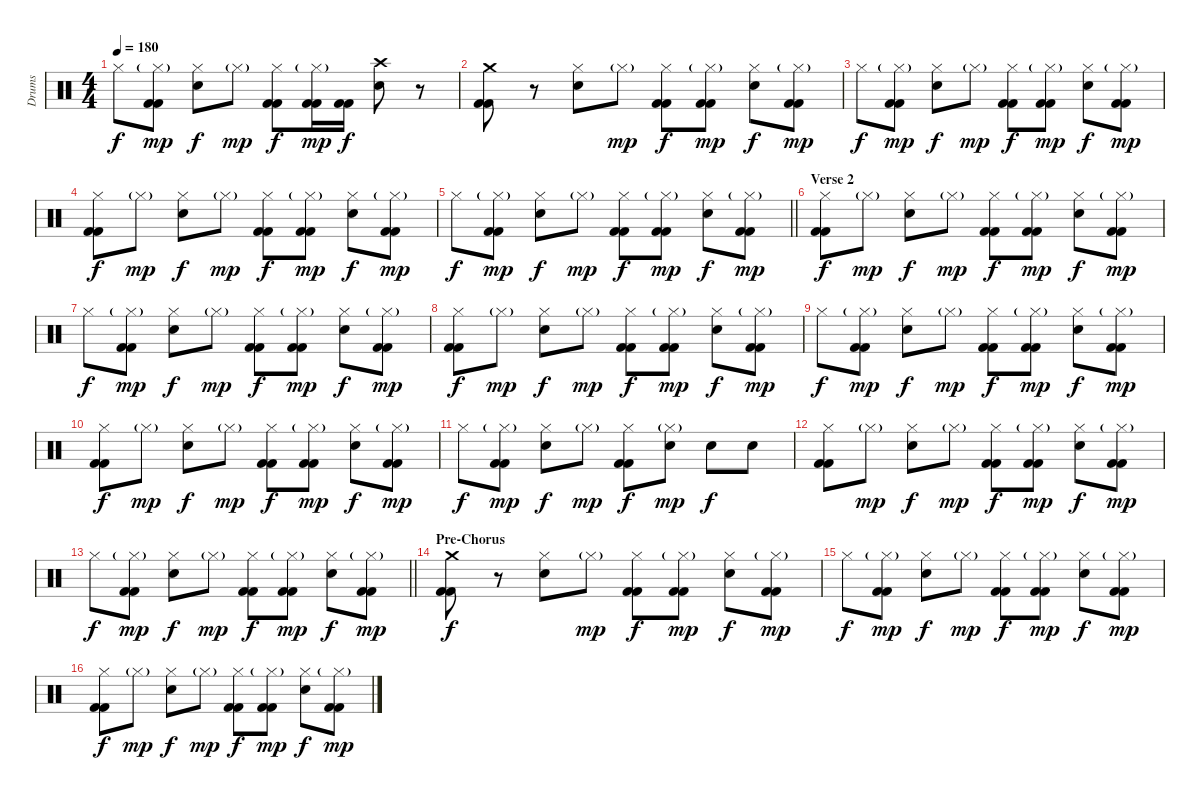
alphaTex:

\track ("Drums" "Drums") {instrument percussion}
\staff {score}
\articulation defaults
\ts (4 4)
\tempo 180
\clef neutral
\ks c "Hi-Hat (closed)".8{dy f}
("Hi-Hat (closed)"{g} "Kick (hit) 2" "Kick (hit) 2").8{dy mp} ("Hi-Hat (closed)" "Snare (hit) 2").8{dy f} "Hi-Hat (closed)"{g}.8{dy mp} ("Hi-Hat (closed)" "Kick (hit) 2" "Kick (hit) 2").8{dy f} ("Hi-Hat (closed)"{g} "Kick (hit) 2" "Kick (hit) 2").16{dy mp} ("Kick (hit) 2" "Kick (hit) 2").16{dy f} ("Crash high (hit)" "Snare (hit) 2").8 r.8 |
("Crash medium (hit)" "Kick (hit) 2" "Kick (hit) 2").8 r.8 ("Hi-Hat (closed)" "Snare (hit) 2").8 "Hi-Hat (closed)"{g}.8{dy mp} ("Hi-Hat (closed)" "Kick (hit) 2" "Kick (hit) 2").8{dy f} ("Hi-Hat (closed)"{g} "Kick (hit) 2" "Kick (hit) 2").8{dy mp} ("Hi-Hat (closed)" "Snare (hit) 2").8{dy f} ("Hi-Hat (closed)"{g} "Kick (hit) 2" "Kick (hit) 2").8{dy mp} |
"Hi-Hat (closed)".8{dy f} ("Hi-Hat (closed)"{g} "Kick (hit) 2" "Kick (hit) 2").8{dy mp} ("Hi-Hat (closed)" "Snare (hit) 2").8{dy f} "Hi-Hat (closed)"{g}.8{dy mp} ("Hi-Hat (closed)" "Kick (hit) 2" "Kick (hit) 2").8{dy f} ("Hi-Hat (closed)"{g} "Kick (hit) 2" "Kick (hit) 2").8{dy mp} ("Hi-Hat (closed)" "Snare (hit) 2").8{dy f} ("Hi-Hat (closed)"{g} "Kick (hit) 2" "Kick (hit) 2").8{dy mp} |
("Hi-Hat (closed)" "Kick (hit) 2" "Kick (hit) 2").8{dy f} "Hi-Hat (closed)"{g}.8{dy mp} ("Hi-Hat (closed)" "Snare (hit) 2").8{dy f} "Hi-Hat (closed)"{g}.8{dy mp} ("Hi-Hat (closed)" "Kick (hit) 2" "Kick (hit) 2").8{dy f} ("Hi-Hat (closed)"{g} "Kick (hit) 2" "Kick (hit) 2").8{dy mp} ("Hi-Hat (closed)" "Snare (hit) 2").8{dy f} ("Hi-Hat (closed)"{g} "Kick (hit) 2" "Kick (hit) 2").8{dy mp} |
\barLineRight lightlight "Hi-Hat (closed)".8{dy f}
("Hi-Hat (closed)"{g} "Kick (hit) 2" "Kick (hit) 2").8{dy mp} ("Hi-Hat (closed)" "Snare (hit) 2").8{dy f} "Hi-Hat (closed)"{g}.8{dy mp} ("Hi-Hat (closed)" "Kick (hit) 2" "Kick (hit) 2").8{dy f} ("Hi-Hat (closed)"{g} "Kick (hit) 2" "Kick (hit) 2").8{dy mp} ("Hi-Hat (closed)" "Snare (hit) 2").8{dy f} ("Hi-Hat (closed)"{g} "Kick (hit) 2" "Kick (hit) 2").8{dy mp} |
\section ("" "Verse 2")
("Hi-Hat (closed)" "Kick (hit) 2" "Kick (hit) 2").8{dy f} "Hi-Hat (closed)"{g}.8{dy mp} ("Hi-Hat (closed)" "Snare (hit) 2").8{dy f} "Hi-Hat (closed)"{g}.8{dy mp} ("Hi-Hat (closed)" "Kick (hit) 2" "Kick (hit) 2").8{dy f} ("Hi-Hat (closed)"{g} "Kick (hit) 2" "Kick (hit) 2").8{dy mp} ("Hi-Hat (closed)" "Snare (hit) 2").8{dy f} ("Hi-Hat (closed)"{g} "Kick (hit) 2" "Kick (hit) 2").8{dy mp} |
"Hi-Hat (closed)".8{dy f} ("Hi-Hat (closed)"{g} "Kick (hit) 2" "Kick (hit) 2").8{dy mp} ("Hi-Hat (closed)" "Snare (hit) 2").8{dy f} "Hi-Hat (closed)"{g}.8{dy mp} ("Hi-Hat (closed)" "Kick (hit) 2" "Kick (hit) 2").8{dy f} ("Hi-Hat (closed)"{g} "Kick (hit) 2" "Kick (hit) 2").8{dy mp} ("Hi-Hat (closed)" "Snare (hit) 2").8{dy f} ("Hi-Hat (closed)"{g} "Kick (hit) 2" "Kick (hit) 2").8{dy mp} |
("Hi-Hat (closed)" "Kick (hit) 2" "Kick (hit) 2").8{dy f} "Hi-Hat (closed)"{g}.8{dy mp} ("Hi-Hat (closed)" "Snare (hit) 2").8{dy f} "Hi-Hat (closed)"{g}.8{dy mp} ("Hi-Hat (closed)" "Kick (hit) 2" "Kick (hit) 2").8{dy f} ("Hi-Hat (closed)"{g} "Kick (hit) 2" "Kick (hit) 2").8{dy mp} ("Hi-Hat (closed)" "Snare (hit) 2").8{dy f} ("Hi-Hat (closed)"{g} "Kick (hit) 2" "Kick (hit) 2").8{dy mp} |
"Hi-Hat (closed)".8{dy f} ("Hi-Hat (closed)"{g} "Kick (hit) 2" "Kick (hit) 2").8{dy mp} ("Hi-Hat (closed)" "Snare (hit) 2").8{dy f} "Hi-Hat (closed)"{g}.8{dy mp} ("Hi-Hat (closed)" "Kick (hit) 2" "Kick (hit) 2").8{dy f} ("Hi-Hat (closed)"{g} "Kick (hit) 2" "Kick (hit) 2").8{dy mp} ("Hi-Hat (closed)" "Snare (hit) 2").8{dy f} ("Hi-Hat (closed)"{g} "Kick (hit) 2" "Kick (hit) 2").8{dy mp} |
("Hi-Hat (closed)" "Kick (hit) 2" "Kick (hit) 2").8{dy f} "Hi-Hat (closed)"{g}.8{dy mp} ("Hi-Hat (closed)" "Snare (hit) 2").8{dy f} "Hi-Hat (closed)"{g}.8{dy mp} ("Hi-Hat (closed)" "Kick (hit) 2" "Kick (hit) 2").8{dy f} ("Hi-Hat (closed)"{g} "Kick (hit) 2" "Kick (hit) 2").8{dy mp} ("Hi-Hat (closed)" "Snare (hit) 2").8{dy f} ("Hi-Hat (closed)"{g} "Kick (hit) 2" "Kick (hit) 2").8{dy mp} |
"Hi-Hat (closed)".8{dy f} ("Hi-Hat (closed)"{g} "Kick (hit) 2" "Kick (hit) 2").8{dy mp} ("Hi-Hat (closed)" "Snare (hit) 2").8{dy f} "Hi-Hat (closed)"{g}.8{dy mp} ("Hi-Hat (closed)" "Kick (hit) 2" "Kick (hit) 2").8{dy f} ("Hi-Hat (closed)"{g} "Snare (hit) 2").8{dy mp} "Snare (hit) 2".8{dy f} "Snare (hit) 2".8 |
("Hi-Hat (closed)" "Kick (hit) 2" "Kick (hit) 2").8 "Hi-Hat (closed)"{g}.8{dy mp} ("Hi-Hat (closed)" "Snare (hit) 2").8{dy f} "Hi-Hat (closed)"{g}.8{dy mp} ("Hi-Hat (closed)" "Kick (hit) 2" "Kick (hit) 2").8{dy f} ("Hi-Hat (closed)"{g} "Kick (hit) 2" "Kick (hit) 2").8{dy mp} ("Hi-Hat (closed)" "Snare (hit) 2").8{dy f} ("Hi-Hat (closed)"{g} "Kick (hit) 2" "Kick (hit) 2").8{dy mp} |
\barLineRight lightlight "Hi-Hat (closed)".8{dy f}
("Hi-Hat (closed)"{g} "Kick (hit) 2" "Kick (hit) 2").8{dy mp} ("Hi-Hat (closed)" "Snare (hit) 2").8{dy f} "Hi-Hat (closed)"{g}.8{dy mp} ("Hi-Hat (closed)" "Kick (hit) 2" "Kick (hit) 2").8{dy f} ("Hi-Hat (closed)"{g} "Kick (hit) 2" "Kick (hit) 2").8{dy mp} ("Hi-Hat (closed)" "Snare (hit) 2").8{dy f} ("Hi-Hat (closed)"{g} "Kick (hit) 2" "Kick (hit) 2").8{dy mp} |
\section ("" "Pre-Chorus")
("Crash medium (hit)" "Kick (hit) 2" "Kick (hit) 2").8{dy f} r.8 ("Hi-Hat (closed)" "Snare (hit) 2").8 "Hi-Hat (closed)"{g}.8{dy mp} ("Hi-Hat (closed)" "Kick (hit) 2" "Kick (hit) 2").8{dy f} ("Hi-Hat (closed)"{g} "Kick (hit) 2" "Kick (hit) 2").8{dy mp} ("Hi-Hat (closed)" "Snare (hit) 2").8{dy f} ("Hi-Hat (closed)"{g} "Kick (hit) 2" "Kick (hit) 2").8{dy mp} |
"Hi-Hat (closed)".8{dy f} ("Hi-Hat (closed)"{g} "Kick (hit) 2" "Kick (hit) 2").8{dy mp} ("Hi-Hat (closed)" "Snare (hit) 2").8{dy f} "Hi-Hat (closed)"{g}.8{dy mp} ("Hi-Hat (closed)" "Kick (hit) 2" "Kick (hit) 2").8{dy f} ("Hi-Hat (closed)"{g} "Kick (hit) 2" "Kick (hit) 2").8{dy mp} ("Hi-Hat (closed)" "Snare (hit) 2").8{dy f} ("Hi-Hat (closed)"{g} "Kick (hit) 2" "Kick (hit) 2").8{dy mp} |
("Hi-Hat (closed)" "Kick (hit) 2" "Kick (hit) 2").8{dy f} "Hi-Hat (closed)"{g}.8{dy mp} ("Hi-Hat (closed)" "Snare (hit) 2").8{dy f} "Hi-Hat (closed)"{g}.8{dy mp} ("Hi-Hat (closed)" "Kick (hit) 2" "Kick (hit) 2").8{dy f} ("Hi-Hat (closed)"{g} "Kick (hit) 2" "Kick (hit) 2").8{dy mp} ("Hi-Hat (closed)" "Snare (hit) 2").8{dy f} ("Hi-Hat (closed)"{g} "Kick (hit) 2" "Kick (hit) 2").8{dy mp}
